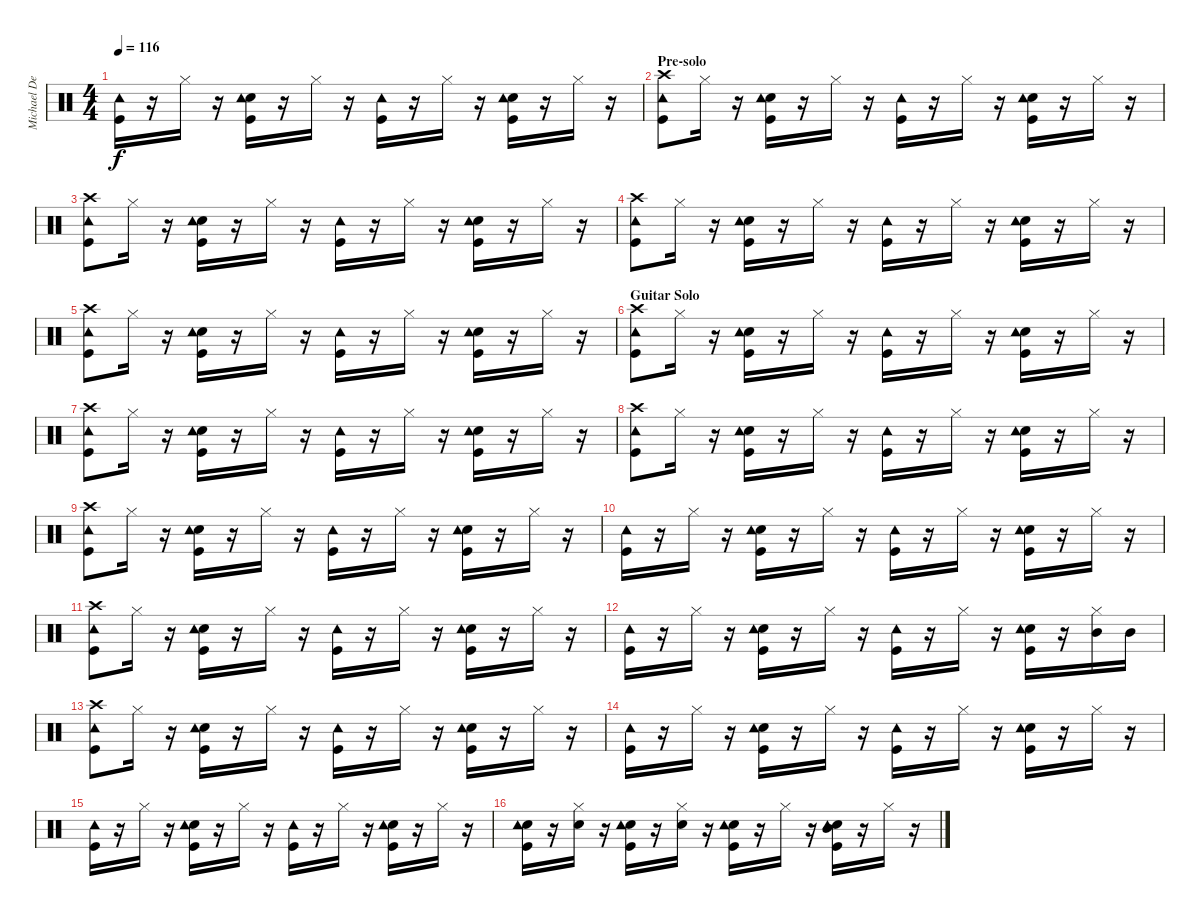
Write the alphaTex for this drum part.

\track ("Michael DeRosier" "Michael De") {instrument percussion}
\staff {score}
\articulation defaults
\ts (4 4)
\tempo 116
\clef neutral
\ks c
("Kick (hit)" "Tambourine (hit)").16{dy f} r.16 "Hi-Hat (closed)".16 r.16 ("Kick (hit)" "Electric Snare (hit)" "Tambourine (hit)").16 r.16 "Hi-Hat (closed)".16 r.16 ("Kick (hit)" "Tambourine (hit)").16 r.16 "Hi-Hat (closed)".16 r.16 ("Kick (hit)" "Electric Snare (hit)" "Tambourine (hit)").16 r.16 "Hi-Hat (closed)".16 r.16 |
\section ("" "Pre-solo")
("Kick (hit)" "Crash high (hit)" "Tambourine (hit)").8 "Hi-Hat (closed)".16 r.16 ("Kick (hit)" "Electric Snare (hit)" "Tambourine (hit)").16 r.16 "Hi-Hat (closed)".16 r.16 ("Kick (hit)" "Tambourine (hit)").16 r.16 "Hi-Hat (closed)".16 r.16 ("Kick (hit)" "Electric Snare (hit)" "Tambourine (hit)").16 r.16 "Hi-Hat (closed)".16 r.16 |
("Kick (hit)" "Crash high (hit)" "Tambourine (hit)").8 "Hi-Hat (closed)".16 r.16 ("Kick (hit)" "Electric Snare (hit)" "Tambourine (hit)").16 r.16 "Hi-Hat (closed)".16 r.16 ("Kick (hit)" "Tambourine (hit)").16 r.16 "Hi-Hat (closed)".16 r.16 ("Kick (hit)" "Electric Snare (hit)" "Tambourine (hit)").16 r.16 "Hi-Hat (closed)".16 r.16 |
("Kick (hit)" "Crash high (hit)" "Tambourine (hit)").8 "Hi-Hat (closed)".16 r.16 ("Kick (hit)" "Electric Snare (hit)" "Tambourine (hit)").16 r.16 "Hi-Hat (closed)".16 r.16 ("Kick (hit)" "Tambourine (hit)").16 r.16 "Hi-Hat (closed)".16 r.16 ("Kick (hit)" "Electric Snare (hit)" "Tambourine (hit)").16 r.16 "Hi-Hat (closed)".16 r.16 |
("Kick (hit)" "Crash high (hit)" "Tambourine (hit)").8 "Hi-Hat (closed)".16 r.16 ("Kick (hit)" "Electric Snare (hit)" "Tambourine (hit)").16 r.16 "Hi-Hat (closed)".16 r.16 ("Kick (hit)" "Tambourine (hit)").16 r.16 "Hi-Hat (closed)".16 r.16 ("Kick (hit)" "Electric Snare (hit)" "Tambourine (hit)").16 r.16 "Hi-Hat (closed)".16 r.16 |
\section ("" "Guitar Solo")
("Kick (hit)" "Crash high (hit)" "Tambourine (hit)").8 "Hi-Hat (closed)".16 r.16 ("Kick (hit)" "Electric Snare (hit)" "Tambourine (hit)").16 r.16 "Hi-Hat (closed)".16 r.16 ("Kick (hit)" "Tambourine (hit)").16 r.16 "Hi-Hat (closed)".16 r.16 ("Kick (hit)" "Electric Snare (hit)" "Tambourine (hit)").16 r.16 "Hi-Hat (closed)".16 r.16 |
("Kick (hit)" "Crash high (hit)" "Tambourine (hit)").8 "Hi-Hat (closed)".16 r.16 ("Kick (hit)" "Electric Snare (hit)" "Tambourine (hit)").16 r.16 "Hi-Hat (closed)".16 r.16 ("Kick (hit)" "Tambourine (hit)").16 r.16 "Hi-Hat (closed)".16 r.16 ("Kick (hit)" "Electric Snare (hit)" "Tambourine (hit)").16 r.16 "Hi-Hat (closed)".16 r.16 |
("Kick (hit)" "Crash high (hit)" "Tambourine (hit)").8 "Hi-Hat (closed)".16 r.16 ("Kick (hit)" "Electric Snare (hit)" "Tambourine (hit)").16 r.16 "Hi-Hat (closed)".16 r.16 ("Kick (hit)" "Tambourine (hit)").16 r.16 "Hi-Hat (closed)".16 r.16 ("Kick (hit)" "Electric Snare (hit)" "Tambourine (hit)").16 r.16 "Hi-Hat (closed)".16 r.16 |
("Kick (hit)" "Crash high (hit)" "Tambourine (hit)").8 "Hi-Hat (closed)".16 r.16 ("Kick (hit)" "Electric Snare (hit)" "Tambourine (hit)").16 r.16 "Hi-Hat (closed)".16 r.16 ("Kick (hit)" "Tambourine (hit)").16 r.16 "Hi-Hat (closed)".16 r.16 ("Kick (hit)" "Electric Snare (hit)" "Tambourine (hit)").16 r.16 "Hi-Hat (closed)".16 r.16 |
("Kick (hit)" "Tambourine (hit)").16 r.16 "Hi-Hat (closed)".16 r.16 ("Kick (hit)" "Electric Snare (hit)" "Tambourine (hit)").16 r.16 "Hi-Hat (closed)".16 r.16 ("Kick (hit)" "Tambourine (hit)").16 r.16 "Hi-Hat (closed)".16 r.16 ("Kick (hit)" "Electric Snare (hit)" "Tambourine (hit)").16 r.16 "Hi-Hat (closed)".16 r.16 |
("Kick (hit)" "Crash high (hit)" "Tambourine (hit)").8 "Hi-Hat (closed)".16 r.16 ("Kick (hit)" "Electric Snare (hit)" "Tambourine (hit)").16 r.16 "Hi-Hat (closed)".16 r.16 ("Kick (hit)" "Tambourine (hit)").16 r.16 "Hi-Hat (closed)".16 r.16 ("Kick (hit)" "Electric Snare (hit)" "Tambourine (hit)").16 r.16 "Hi-Hat (closed)".16 r.16 |
("Kick (hit)" "Tambourine (hit)").16 r.16 "Hi-Hat (closed)".16 r.16 ("Kick (hit)" "Electric Snare (hit)" "Tambourine (hit)").16 r.16 "Hi-Hat (closed)".16 r.16 ("Kick (hit)" "Tambourine (hit)").16 r.16 "Hi-Hat (closed)".16 r.16 ("Kick (hit)" "Electric Snare (hit)" "Tambourine (hit)").16 r.16 ("Mid Tom (hit)" "Hi-Hat (closed)").16 "Mid Tom (hit)".16 |
("Kick (hit)" "Crash high (hit)" "Tambourine (hit)").8 "Hi-Hat (closed)".16 r.16 ("Kick (hit)" "Electric Snare (hit)" "Tambourine (hit)").16 r.16 "Hi-Hat (closed)".16 r.16 ("Kick (hit)" "Tambourine (hit)").16 r.16 "Hi-Hat (closed)".16 r.16 ("Kick (hit)" "Electric Snare (hit)" "Tambourine (hit)").16 r.16 "Hi-Hat (closed)".16 r.16 |
("Kick (hit)" "Tambourine (hit)").16 r.16 "Hi-Hat (closed)".16 r.16 ("Kick (hit)" "Electric Snare (hit)" "Tambourine (hit)").16 r.16 "Hi-Hat (closed)".16 r.16 ("Kick (hit)" "Tambourine (hit)").16 r.16 "Hi-Hat (closed)".16 r.16 ("Kick (hit)" "Electric Snare (hit)" "Tambourine (hit)").16 r.16 "Hi-Hat (closed)".16 r.16 |
("Kick (hit)" "Tambourine (hit)").16 r.16 "Hi-Hat (closed)".16 r.16 ("Kick (hit)" "Electric Snare (hit)" "Tambourine (hit)").16 r.16 "Hi-Hat (closed)".16 r.16 ("Kick (hit)" "Tambourine (hit)").16 r.16 "Hi-Hat (closed)".16 r.16 ("Kick (hit)" "Electric Snare (hit)" "Tambourine (hit)").16 r.16 "Hi-Hat (closed)".16 r.16 |
("Kick (hit)" "Electric Snare (hit)" "Tambourine (hit)").16 r.16 ("Electric Snare (hit)" "Hi-Hat (closed)").16 r.16 ("Kick (hit)" "Electric Snare (hit)" "Tambourine (hit)").16 r.16 ("Electric Snare (hit)" "Hi-Hat (closed)").16 r.16 ("Kick (hit)" "Electric Snare (hit)" "Tambourine (hit)").16 r.16 "Hi-Hat (closed)".16 r.16 ("Kick (hit)" "Electric Snare (hit)" "Mid Tom (hit)" "Tambourine (hit)").16 r.16 "Hi-Hat (closed)".16 r.16
